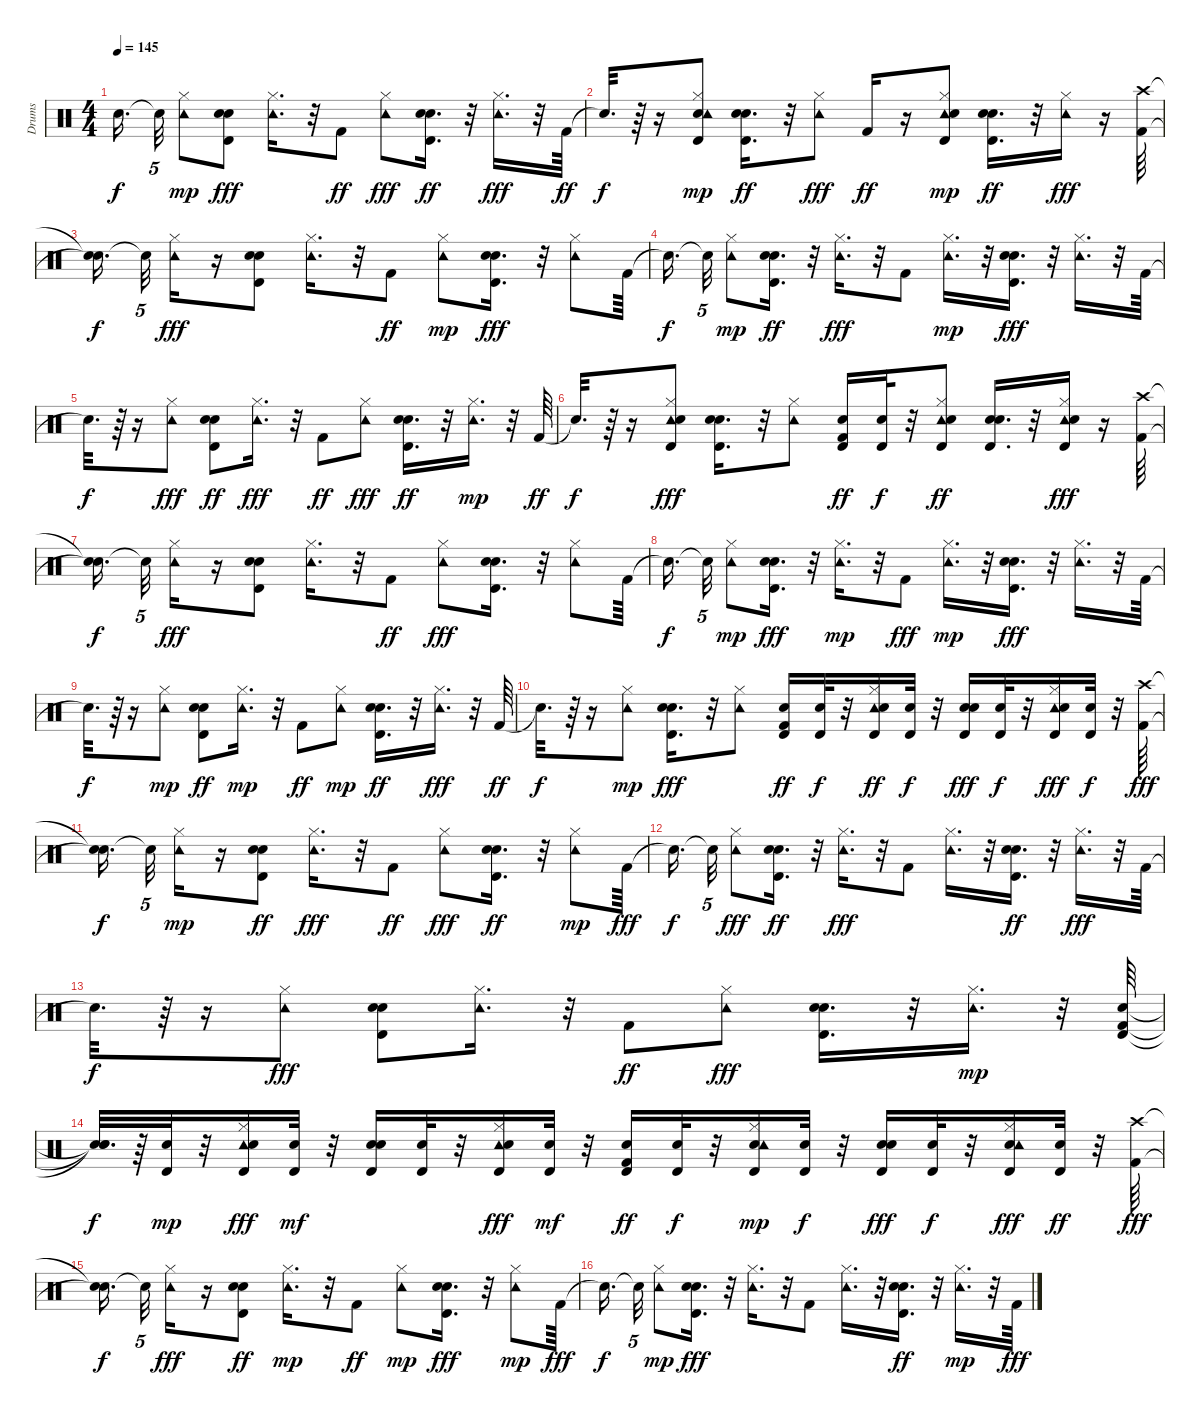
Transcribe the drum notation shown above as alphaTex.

\track ("Drums" "Drums") {instrument percussion}
\staff {score}
\articulation defaults
\ts (4 4)
\tempo 145
\clef neutral
\ks c "Snare (hit)"{t}.16{d dy f} "Snare (hit)"{t}.32{tu (5 4)}
("Hi-Hat (closed)" "Tambourine (hit)").8{dy mp} ("Timbale high (hit)" "Snare (hit) 2" "Hand Clap (hit)").8{dy fff} ("Tambourine (hit)" "Hi-Hat (closed)").16{d} r.32 "Kick (hit) 2".8{dy ff} ("Tambourine (hit)" "Hi-Hat (closed)").8{dy fff} ("Timbale high (hit)" "Hand Clap (hit)" "Snare (hit) 2").16{d dy ff} r.32 ("Tambourine (hit)" "Hi-Hat (closed)").16{d dy fff} r.32 "Kick (hit) 2".64{dy ff} |
"Snare (hit)"{t}.32{d dy f} r.64 r.16 ("Timbale high (hit)" "Snare (hit) 2" "Hi-Hat (closed)" "Tambourine (hit)").8{dy mp} ("Hand Clap (hit)" "Snare (hit) 2" "Timbale high (hit)").16{d dy ff} r.32 ("Tambourine (hit)" "Hi-Hat (closed)").8{dy fff} "Kick (hit) 2".16{dy ff} r.16 ("Hi-Hat (closed)" "Tambourine (hit)" "Snare (hit) 2" "Timbale high (hit)").8{dy mp} ("Hand Clap (hit)" "Snare (hit) 2" "Timbale high (hit)").16{d dy ff} r.32 ("Tambourine (hit)" "Hi-Hat (closed)").16{dy fff} r.16 ("Kick (hit) 2" "Crash high (hit)").64 |
("Snare (hit)"{t} "Snare (hit)"{t}).16{d dy f} "Snare (hit)"{t}.32{tu (5 4)} ("Tambourine (hit)" "Hi-Hat (closed)").16{dy fff} r.16 ("Snare (hit) 2" "Hand Clap (hit)" "Timbale high (hit)").8 ("Tambourine (hit)" "Hi-Hat (closed)").16{d} r.32 "Kick (hit) 2".8{dy ff} ("Hi-Hat (closed)" "Tambourine (hit)").8{dy mp} ("Snare (hit) 2" "Timbale high (hit)" "Hand Clap (hit)").16{d dy fff} r.32 ("Tambourine (hit)" "Hi-Hat (closed)").8 "Kick (hit) 2".64 |
"Snare (hit)"{t}.16{d dy f} "Snare (hit)"{t}.32{tu (5 4)} ("Hi-Hat (closed)" "Tambourine (hit)").8{dy mp} ("Hand Clap (hit)" "Timbale high (hit)" "Snare (hit) 2").16{d dy ff} r.32 ("Tambourine (hit)" "Hi-Hat (closed)").16{d dy fff} r.32 "Kick (hit) 2".8 ("Hi-Hat (closed)" "Tambourine (hit)").16{d dy mp} r.32 ("Timbale high (hit)" "Snare (hit) 2" "Hand Clap (hit)").16{d dy fff} r.32 ("Tambourine (hit)" "Hi-Hat (closed)").16{d} r.32 "Kick (hit) 2".64 |
"Snare (hit)"{t}.32{d dy f} r.64 r.16 ("Tambourine (hit)" "Hi-Hat (closed)").8{dy fff} ("Timbale high (hit)" "Hand Clap (hit)" "Snare (hit) 2").8{dy ff} ("Tambourine (hit)" "Hi-Hat (closed)").16{d dy fff} r.32 "Kick (hit) 2".8{dy ff} ("Tambourine (hit)" "Hi-Hat (closed)").8{dy fff} ("Hand Clap (hit)" "Timbale high (hit)" "Snare (hit) 2").16{d dy ff} r.32 ("Hi-Hat (closed)" "Tambourine (hit)").16{d dy mp} r.32 "Kick (hit) 2".64{dy ff} |
"Snare (hit)"{t}.32{d dy f} r.64 r.16 ("Timbale high (hit)" "Tambourine (hit)" "Snare (hit) 2" "Hi-Hat (closed)").8{dy fff} ("Timbale high (hit)" "Snare (hit) 2" "Hand Clap (hit)").16{d} r.32 ("Tambourine (hit)" "Hi-Hat (closed)").8 ("Snare (hit) 2" "Kick (hit) 2" "Timbale high (hit)").16{dy ff} ("Timbale high (hit)" "Snare (hit) 2").32{dy f} r.32 ("Tambourine (hit)" "Snare (hit) 2" "Timbale high (hit)" "Hi-Hat (closed)").8{dy ff} ("Timbale high (hit)" "Hand Clap (hit)" "Snare (hit) 2").16{d} r.32 ("Tambourine (hit)" "Snare (hit) 2" "Timbale high (hit)" "Hi-Hat (closed)").16{dy fff} r.16 ("Crash high (hit)" "Kick (hit) 2").64 |
("Snare (hit)"{t} "Snare (hit)"{t}).16{d dy f} "Snare (hit)"{t}.32{tu (5 4)} ("Tambourine (hit)" "Hi-Hat (closed)").16{dy fff} r.16 ("Timbale high (hit)" "Snare (hit) 2" "Hand Clap (hit)").8 ("Tambourine (hit)" "Hi-Hat (closed)").16{d} r.32 "Kick (hit) 2".8{dy ff} ("Tambourine (hit)" "Hi-Hat (closed)").8{dy fff} ("Snare (hit) 2" "Timbale high (hit)" "Hand Clap (hit)").16{d} r.32 ("Tambourine (hit)" "Hi-Hat (closed)").8 "Kick (hit) 2".64 |
"Snare (hit)"{t}.16{d dy f} "Snare (hit)"{t}.32{tu (5 4)} ("Hi-Hat (closed)" "Tambourine (hit)").8{dy mp} ("Snare (hit) 2" "Timbale high (hit)" "Hand Clap (hit)").16{d dy fff} r.32 ("Hi-Hat (closed)" "Tambourine (hit)").16{d dy mp} r.32 "Kick (hit) 2".8{dy fff} ("Hi-Hat (closed)" "Tambourine (hit)").16{d dy mp} r.32 ("Snare (hit) 2" "Timbale high (hit)" "Hand Clap (hit)").16{d dy fff} r.32 ("Tambourine (hit)" "Hi-Hat (closed)").16{d} r.32 "Kick (hit) 2".64 |
"Snare (hit)"{t}.32{d dy f} r.64 r.16 ("Hi-Hat (closed)" "Tambourine (hit)").8{dy mp} ("Timbale high (hit)" "Hand Clap (hit)" "Snare (hit) 2").8{dy ff} ("Hi-Hat (closed)" "Tambourine (hit)").16{d dy mp} r.32 "Kick (hit) 2".8{dy ff} ("Hi-Hat (closed)" "Tambourine (hit)").8{dy mp} ("Snare (hit) 2" "Hand Clap (hit)" "Timbale high (hit)").16{d dy ff} r.32 ("Tambourine (hit)" "Hi-Hat (closed)").16{d dy fff} r.32 "Kick (hit) 2".64{dy ff} |
"Snare (hit)"{t}.32{d dy f} r.64 r.16 ("Hi-Hat (closed)" "Tambourine (hit)").8{dy mp} ("Snare (hit) 2" "Timbale high (hit)" "Hand Clap (hit)").16{d dy fff} r.32 ("Tambourine (hit)" "Hi-Hat (closed)").8 ("Kick (hit) 2" "Snare (hit) 2" "Timbale high (hit)").16{dy ff} ("Timbale high (hit)" "Snare (hit) 2").32{dy f} r.32 ("Tambourine (hit)" "Snare (hit) 2" "Hi-Hat (closed)" "Timbale high (hit)").16{dy ff} ("Snare (hit) 2" "Timbale high (hit)").32{dy f} r.32 ("Timbale high (hit)" "Snare (hit) 2" "Hand Clap (hit)").16{dy fff} ("Snare (hit) 2" "Timbale high (hit)").32{dy f} r.32 ("Timbale high (hit)" "Tambourine (hit)" "Snare (hit) 2" "Hi-Hat (closed)").16{dy fff} ("Snare (hit) 2" "Timbale high (hit)").32{dy f} r.32 ("Kick (hit) 2" "Crash high (hit)").64{dy fff} |
("Snare (hit)"{t} "Snare (hit)"{t}).16{d dy f} "Snare (hit)"{t}.32{tu (5 4)} ("Hi-Hat (closed)" "Tambourine (hit)").16{dy mp} r.16 ("Timbale high (hit)" "Hand Clap (hit)" "Snare (hit) 2").8{dy ff} ("Tambourine (hit)" "Hi-Hat (closed)").16{d dy fff} r.32 "Kick (hit) 2".8{dy ff} ("Tambourine (hit)" "Hi-Hat (closed)").8{dy fff} ("Hand Clap (hit)" "Snare (hit) 2" "Timbale high (hit)").16{d dy ff} r.32 ("Hi-Hat (closed)" "Tambourine (hit)").8{dy mp} "Kick (hit) 2".64{dy fff} |
"Snare (hit)"{t}.16{d dy f} "Snare (hit)"{t}.32{tu (5 4)} ("Tambourine (hit)" "Hi-Hat (closed)").8{dy fff} ("Hand Clap (hit)" "Snare (hit) 2" "Timbale high (hit)").16{d dy ff} r.32 ("Tambourine (hit)" "Hi-Hat (closed)").16{d dy fff} r.32 "Kick (hit) 2".8 ("Tambourine (hit)" "Hi-Hat (closed)").16{d} r.32 ("Hand Clap (hit)" "Snare (hit) 2" "Timbale high (hit)").16{d dy ff} r.32 ("Tambourine (hit)" "Hi-Hat (closed)").16{d dy fff} r.32 "Kick (hit) 2".64 |
"Snare (hit)"{t}.32{d dy f} r.64 r.16 ("Tambourine (hit)" "Hi-Hat (closed)").8{dy fff} ("Timbale high (hit)" "Snare (hit) 2" "Hand Clap (hit)").8 ("Tambourine (hit)" "Hi-Hat (closed)").16{d} r.32 "Kick (hit) 2".8{dy ff} ("Tambourine (hit)" "Hi-Hat (closed)").8{dy fff} ("Timbale high (hit)" "Snare (hit) 2" "Hand Clap (hit)").16{d} r.32 ("Hi-Hat (closed)" "Tambourine (hit)").16{d dy mp} r.32 ("Timbale high (hit)" "Kick (hit) 2" "Snare (hit) 2").64 |
("Snare (hit)"{t} "Snare (hit)"{t} "Snare (hit)"{t}).32{d dy f} r.64 ("Timbale high (hit)" "Snare (hit) 2").32{dy mp} r.32 ("Tambourine (hit)" "Snare (hit) 2" "Timbale high (hit)" "Hi-Hat (closed)").16{dy fff} ("Snare (hit) 2" "Timbale high (hit)").32{dy mf} r.32 ("Snare (hit) 2" "Hand Clap (hit)" "Timbale high (hit)").16 ("Snare (hit) 2" "Timbale high (hit)").32 r.32 ("Tambourine (hit)" "Timbale high (hit)" "Snare (hit) 2" "Hi-Hat (closed)").16{dy fff} ("Snare (hit) 2" "Timbale high (hit)").32{dy mf} r.32 ("Snare (hit) 2" "Timbale high (hit)" "Kick (hit) 2").16{dy ff} ("Snare (hit) 2" "Timbale high (hit)").32{dy f} r.32 ("Hi-Hat (closed)" "Timbale high (hit)" "Snare (hit) 2" "Tambourine (hit)").16{dy mp} ("Snare (hit) 2" "Timbale high (hit)").32{dy f} r.32 ("Timbale high (hit)" "Hand Clap (hit)" "Snare (hit) 2").16{dy fff} ("Timbale high (hit)" "Snare (hit) 2").32{dy f} r.32 ("Snare (hit) 2" "Timbale high (hit)" "Tambourine (hit)" "Hi-Hat (closed)").16{dy fff} ("Snare (hit) 2" "Timbale high (hit)").32{dy ff} r.32 ("Crash high (hit)" "Kick (hit) 2").64{dy fff} |
("Snare (hit)"{t} "Snare (hit)"{t}).16{d dy f} "Snare (hit)"{t}.32{tu (5 4)} ("Tambourine (hit)" "Hi-Hat (closed)").16{dy fff} r.16 ("Timbale high (hit)" "Hand Clap (hit)" "Snare (hit) 2").8{dy ff} ("Hi-Hat (closed)" "Tambourine (hit)").16{d dy mp} r.32 "Kick (hit) 2".8{dy ff} ("Hi-Hat (closed)" "Tambourine (hit)").8{dy mp} ("Snare (hit) 2" "Timbale high (hit)" "Hand Clap (hit)").16{d dy fff} r.32 ("Hi-Hat (closed)" "Tambourine (hit)").8{dy mp} "Kick (hit) 2".64{dy fff} |
"Snare (hit)"{t}.16{d dy f} "Snare (hit)"{t}.32{tu (5 4)} ("Hi-Hat (closed)" "Tambourine (hit)").8{dy mp} ("Snare (hit) 2" "Timbale high (hit)" "Hand Clap (hit)").16{d dy fff} r.32 ("Tambourine (hit)" "Hi-Hat (closed)").16{d} r.32 "Kick (hit) 2".8 ("Tambourine (hit)" "Hi-Hat (closed)").16{d} r.32 ("Hand Clap (hit)" "Snare (hit) 2" "Timbale high (hit)").16{d dy ff} r.32 ("Hi-Hat (closed)" "Tambourine (hit)").16{d dy mp} r.32 "Kick (hit) 2".64{dy fff}
